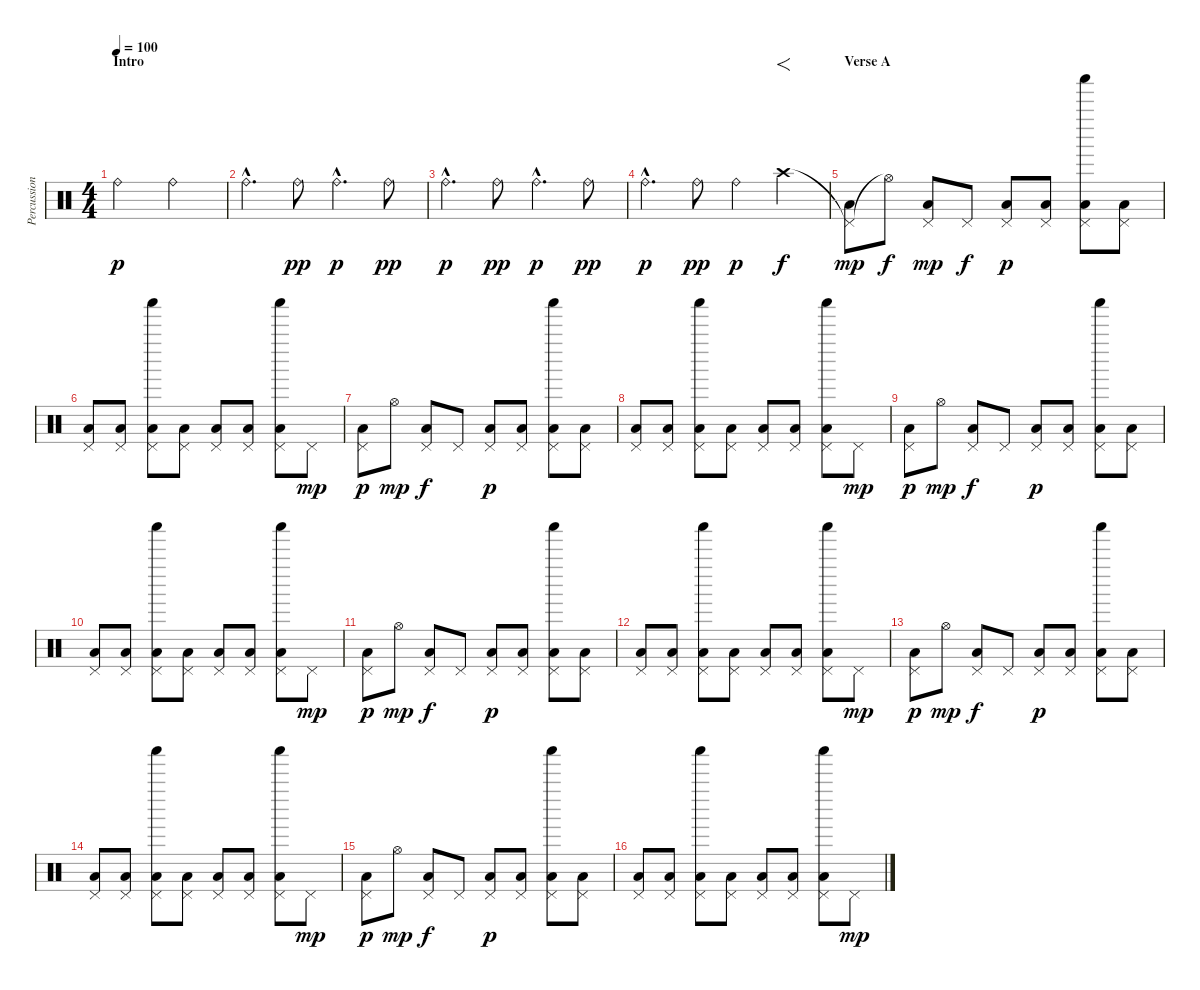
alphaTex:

\track ("Percussions" "Percussion") {instrument percussion}
\staff {score}
\articulation defaults
\ts (4 4)
\section ("" "Intro")
\tempo 100
\clef neutral
\ks c "Ride (bell)".2{dy p} "Ride (bell)".2
|
"Ride (bell)"{hac}.4{d} "Ride (bell)".8{dy pp} "Ride (bell)"{hac}.4{d dy p} "Ride (bell)".8{dy pp} |
"Ride (bell)"{hac}.4{d dy p} "Ride (bell)".8{dy pp} "Ride (bell)"{hac}.4{d dy p} "Ride (bell)".8{dy pp} |
"Ride (bell)"{hac}.4{d dy p} "Ride (bell)".8{dy pp} "Ride (bell)".4{dy p} "Crash high (hit)".4{f dy f} |
\section ("" "Verse A")
("Pedal Hi-Hat (hit)"{t} "Low Floor Tom (hit)").8{dy mp} "Hi-Hat (open)"{t}.8{dy f} ("Pedal Hi-Hat (hit)" "Low Floor Tom (hit)").8{dy mp} "Pedal Hi-Hat (hit)".8{dy f} ("Pedal Hi-Hat (hit)" "Low Floor Tom (hit)").8{dy p} ("Pedal Hi-Hat (hit)" "Low Floor Tom (hit)").8 ("Pedal Hi-Hat (hit)" "Shaker (hit)" "Low Floor Tom (hit)").8 ("Pedal Hi-Hat (hit)" "Low Floor Tom (hit)").8 |
("Pedal Hi-Hat (hit)" "Low Floor Tom (hit)").8 ("Pedal Hi-Hat (hit)" "Low Floor Tom (hit)").8 ("Pedal Hi-Hat (hit)" "Shaker (hit)" "Low Floor Tom (hit)").8 ("Pedal Hi-Hat (hit)" "Low Floor Tom (hit)").8 ("Pedal Hi-Hat (hit)" "Low Floor Tom (hit)").8 ("Pedal Hi-Hat (hit)" "Low Floor Tom (hit)").8 ("Pedal Hi-Hat (hit)" "Shaker (hit)" "Low Floor Tom (hit)").8 "Pedal Hi-Hat (hit)".8{dy mp} |
("Pedal Hi-Hat (hit)" "Low Floor Tom (hit)").8{dy p} "Hi-Hat (open)".8{dy mp} ("Pedal Hi-Hat (hit)" "Low Floor Tom (hit)").8{dy f} "Pedal Hi-Hat (hit)".8 ("Pedal Hi-Hat (hit)" "Low Floor Tom (hit)").8{dy p} ("Pedal Hi-Hat (hit)" "Low Floor Tom (hit)").8 ("Pedal Hi-Hat (hit)" "Shaker (hit)" "Low Floor Tom (hit)").8 ("Pedal Hi-Hat (hit)" "Low Floor Tom (hit)").8 |
("Pedal Hi-Hat (hit)" "Low Floor Tom (hit)").8 ("Pedal Hi-Hat (hit)" "Low Floor Tom (hit)").8 ("Pedal Hi-Hat (hit)" "Shaker (hit)" "Low Floor Tom (hit)").8 ("Pedal Hi-Hat (hit)" "Low Floor Tom (hit)").8 ("Pedal Hi-Hat (hit)" "Low Floor Tom (hit)").8 ("Pedal Hi-Hat (hit)" "Low Floor Tom (hit)").8 ("Pedal Hi-Hat (hit)" "Shaker (hit)" "Low Floor Tom (hit)").8 "Pedal Hi-Hat (hit)".8{dy mp} |
("Pedal Hi-Hat (hit)" "Low Floor Tom (hit)").8{dy p} "Hi-Hat (open)".8{dy mp} ("Pedal Hi-Hat (hit)" "Low Floor Tom (hit)").8{dy f} "Pedal Hi-Hat (hit)".8 ("Pedal Hi-Hat (hit)" "Low Floor Tom (hit)").8{dy p} ("Pedal Hi-Hat (hit)" "Low Floor Tom (hit)").8 ("Pedal Hi-Hat (hit)" "Shaker (hit)" "Low Floor Tom (hit)").8 ("Pedal Hi-Hat (hit)" "Low Floor Tom (hit)").8 |
("Pedal Hi-Hat (hit)" "Low Floor Tom (hit)").8 ("Pedal Hi-Hat (hit)" "Low Floor Tom (hit)").8 ("Pedal Hi-Hat (hit)" "Shaker (hit)" "Low Floor Tom (hit)").8 ("Pedal Hi-Hat (hit)" "Low Floor Tom (hit)").8 ("Pedal Hi-Hat (hit)" "Low Floor Tom (hit)").8 ("Pedal Hi-Hat (hit)" "Low Floor Tom (hit)").8 ("Pedal Hi-Hat (hit)" "Shaker (hit)" "Low Floor Tom (hit)").8 "Pedal Hi-Hat (hit)".8{dy mp} |
("Pedal Hi-Hat (hit)" "Low Floor Tom (hit)").8{dy p} "Hi-Hat (open)".8{dy mp} ("Pedal Hi-Hat (hit)" "Low Floor Tom (hit)").8{dy f} "Pedal Hi-Hat (hit)".8 ("Pedal Hi-Hat (hit)" "Low Floor Tom (hit)").8{dy p} ("Pedal Hi-Hat (hit)" "Low Floor Tom (hit)").8 ("Pedal Hi-Hat (hit)" "Shaker (hit)" "Low Floor Tom (hit)").8 ("Pedal Hi-Hat (hit)" "Low Floor Tom (hit)").8 |
("Pedal Hi-Hat (hit)" "Low Floor Tom (hit)").8 ("Pedal Hi-Hat (hit)" "Low Floor Tom (hit)").8 ("Pedal Hi-Hat (hit)" "Shaker (hit)" "Low Floor Tom (hit)").8 ("Pedal Hi-Hat (hit)" "Low Floor Tom (hit)").8 ("Pedal Hi-Hat (hit)" "Low Floor Tom (hit)").8 ("Pedal Hi-Hat (hit)" "Low Floor Tom (hit)").8 ("Pedal Hi-Hat (hit)" "Shaker (hit)" "Low Floor Tom (hit)").8 "Pedal Hi-Hat (hit)".8{dy mp} |
("Pedal Hi-Hat (hit)" "Low Floor Tom (hit)").8{dy p} "Hi-Hat (open)".8{dy mp} ("Pedal Hi-Hat (hit)" "Low Floor Tom (hit)").8{dy f} "Pedal Hi-Hat (hit)".8 ("Pedal Hi-Hat (hit)" "Low Floor Tom (hit)").8{dy p} ("Pedal Hi-Hat (hit)" "Low Floor Tom (hit)").8 ("Pedal Hi-Hat (hit)" "Shaker (hit)" "Low Floor Tom (hit)").8 ("Pedal Hi-Hat (hit)" "Low Floor Tom (hit)").8 |
("Pedal Hi-Hat (hit)" "Low Floor Tom (hit)").8 ("Pedal Hi-Hat (hit)" "Low Floor Tom (hit)").8 ("Pedal Hi-Hat (hit)" "Shaker (hit)" "Low Floor Tom (hit)").8 ("Pedal Hi-Hat (hit)" "Low Floor Tom (hit)").8 ("Pedal Hi-Hat (hit)" "Low Floor Tom (hit)").8 ("Pedal Hi-Hat (hit)" "Low Floor Tom (hit)").8 ("Pedal Hi-Hat (hit)" "Shaker (hit)" "Low Floor Tom (hit)").8 "Pedal Hi-Hat (hit)".8{dy mp} |
("Pedal Hi-Hat (hit)" "Low Floor Tom (hit)").8{dy p} "Hi-Hat (open)".8{dy mp} ("Pedal Hi-Hat (hit)" "Low Floor Tom (hit)").8{dy f} "Pedal Hi-Hat (hit)".8 ("Pedal Hi-Hat (hit)" "Low Floor Tom (hit)").8{dy p} ("Pedal Hi-Hat (hit)" "Low Floor Tom (hit)").8 ("Pedal Hi-Hat (hit)" "Shaker (hit)" "Low Floor Tom (hit)").8 ("Pedal Hi-Hat (hit)" "Low Floor Tom (hit)").8 |
("Pedal Hi-Hat (hit)" "Low Floor Tom (hit)").8 ("Pedal Hi-Hat (hit)" "Low Floor Tom (hit)").8 ("Pedal Hi-Hat (hit)" "Shaker (hit)" "Low Floor Tom (hit)").8 ("Pedal Hi-Hat (hit)" "Low Floor Tom (hit)").8 ("Pedal Hi-Hat (hit)" "Low Floor Tom (hit)").8 ("Pedal Hi-Hat (hit)" "Low Floor Tom (hit)").8 ("Pedal Hi-Hat (hit)" "Shaker (hit)" "Low Floor Tom (hit)").8 "Pedal Hi-Hat (hit)".8{dy mp}
